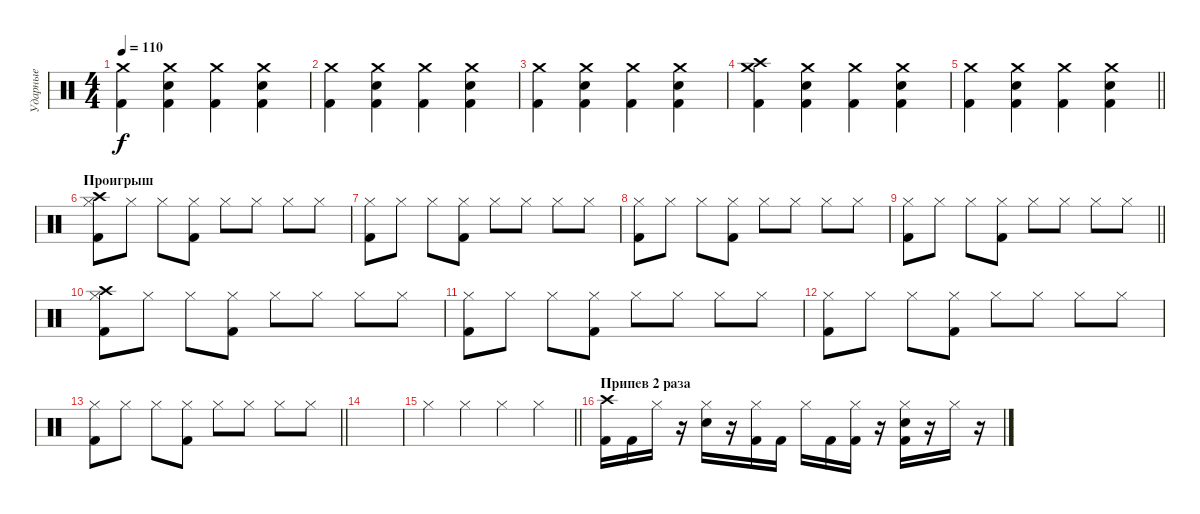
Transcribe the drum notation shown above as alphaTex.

\track ("Ударные" "Ударные") {instrument percussion}
\staff {score}
\articulation defaults
\ts (4 4)
\tempo 110
\clef neutral
\ks c
("Crash medium (hit)" "Kick (hit) 2").4{dy f} ("Crash medium (hit)" "Electric Snare (hit)" "Kick (hit) 2").4 ("Crash medium (hit)" "Kick (hit) 2").4 ("Crash medium (hit)" "Electric Snare (hit)" "Kick (hit) 2").4 |
("Crash medium (hit)" "Kick (hit) 2").4 ("Crash medium (hit)" "Electric Snare (hit)" "Kick (hit) 2").4 ("Crash medium (hit)" "Kick (hit) 2").4 ("Crash medium (hit)" "Electric Snare (hit)" "Kick (hit) 2").4 |
("Crash medium (hit)" "Kick (hit) 2").4 ("Crash medium (hit)" "Electric Snare (hit)" "Kick (hit) 2").4 ("Crash medium (hit)" "Kick (hit) 2").4 ("Crash medium (hit)" "Electric Snare (hit)" "Kick (hit) 2").4 |
("Crash high (hit)" "Crash medium (hit)" "Kick (hit) 2").4 ("Crash medium (hit)" "Electric Snare (hit)" "Kick (hit) 2").4 ("Crash medium (hit)" "Kick (hit) 2").4 ("Crash medium (hit)" "Electric Snare (hit)" "Kick (hit) 2").4 |
\barLineRight lightlight
("Crash medium (hit)" "Kick (hit) 2").4 ("Crash medium (hit)" "Electric Snare (hit)" "Kick (hit) 2").4 ("Crash medium (hit)" "Kick (hit) 2").4 ("Crash medium (hit)" "Electric Snare (hit)" "Kick (hit) 2").4 |
\section ("" "Проигрыш")
("Crash high (hit)" "Hi-Hat (closed)" "Kick (hit) 2").8 "Hi-Hat (closed)".8 "Hi-Hat (closed)".8 ("Hi-Hat (closed)" "Kick (hit) 2").8 "Hi-Hat (closed)".8 "Hi-Hat (closed)".8 "Hi-Hat (closed)".8 "Hi-Hat (closed)".8 |
("Hi-Hat (closed)" "Kick (hit) 2").8 "Hi-Hat (closed)".8 "Hi-Hat (closed)".8 ("Hi-Hat (closed)" "Kick (hit) 2").8 "Hi-Hat (closed)".8 "Hi-Hat (closed)".8 "Hi-Hat (closed)".8 "Hi-Hat (closed)".8 |
("Hi-Hat (closed)" "Kick (hit) 2").8 "Hi-Hat (closed)".8 "Hi-Hat (closed)".8 ("Hi-Hat (closed)" "Kick (hit) 2").8 "Hi-Hat (closed)".8 "Hi-Hat (closed)".8 "Hi-Hat (closed)".8 "Hi-Hat (closed)".8 |
\barLineRight lightlight
("Hi-Hat (closed)" "Kick (hit) 2").8 "Hi-Hat (closed)".8 "Hi-Hat (closed)".8 ("Hi-Hat (closed)" "Kick (hit) 2").8 "Hi-Hat (closed)".8 "Hi-Hat (closed)".8 "Hi-Hat (closed)".8 "Hi-Hat (closed)".8 |
("Crash high (hit)" "Hi-Hat (closed)" "Kick (hit) 2").8 "Hi-Hat (closed)".8 "Hi-Hat (closed)".8 ("Hi-Hat (closed)" "Kick (hit) 2").8 "Hi-Hat (closed)".8 "Hi-Hat (closed)".8 "Hi-Hat (closed)".8 "Hi-Hat (closed)".8 |
("Hi-Hat (closed)" "Kick (hit) 2").8 "Hi-Hat (closed)".8 "Hi-Hat (closed)".8 ("Hi-Hat (closed)" "Kick (hit) 2").8 "Hi-Hat (closed)".8 "Hi-Hat (closed)".8 "Hi-Hat (closed)".8 "Hi-Hat (closed)".8 |
("Hi-Hat (closed)" "Kick (hit) 2").8 "Hi-Hat (closed)".8 "Hi-Hat (closed)".8 ("Hi-Hat (closed)" "Kick (hit) 2").8 "Hi-Hat (closed)".8 "Hi-Hat (closed)".8 "Hi-Hat (closed)".8 "Hi-Hat (closed)".8 |
\barLineRight lightlight
("Hi-Hat (closed)" "Kick (hit) 2").8 "Hi-Hat (closed)".8 "Hi-Hat (closed)".8 ("Hi-Hat (closed)" "Kick (hit) 2").8 "Hi-Hat (closed)".8 "Hi-Hat (closed)".8 "Hi-Hat (closed)".8 "Hi-Hat (closed)".8 |
|
\barLineRight lightlight "Hi-Hat (closed)".4 "Hi-Hat (closed)".4 "Hi-Hat (closed)".4 "Hi-Hat (closed)".4
|
\section ("" "Припев 2 раза")
("Crash high (hit)" "Kick (hit) 2").16 "Kick (hit) 2".16 "Hi-Hat (closed)".16 r.16 ("Hi-Hat (closed)" "Electric Snare (hit)").16 r.16 ("Hi-Hat (closed)" "Kick (hit) 2").16 "Kick (hit) 2".16 "Hi-Hat (closed)".16 "Kick (hit) 2".16 ("Hi-Hat (closed)" "Kick (hit) 2").16 r.16 ("Hi-Hat (closed)" "Electric Snare (hit)" "Kick (hit) 2").16 r.16 "Hi-Hat (closed)".16 r.16
